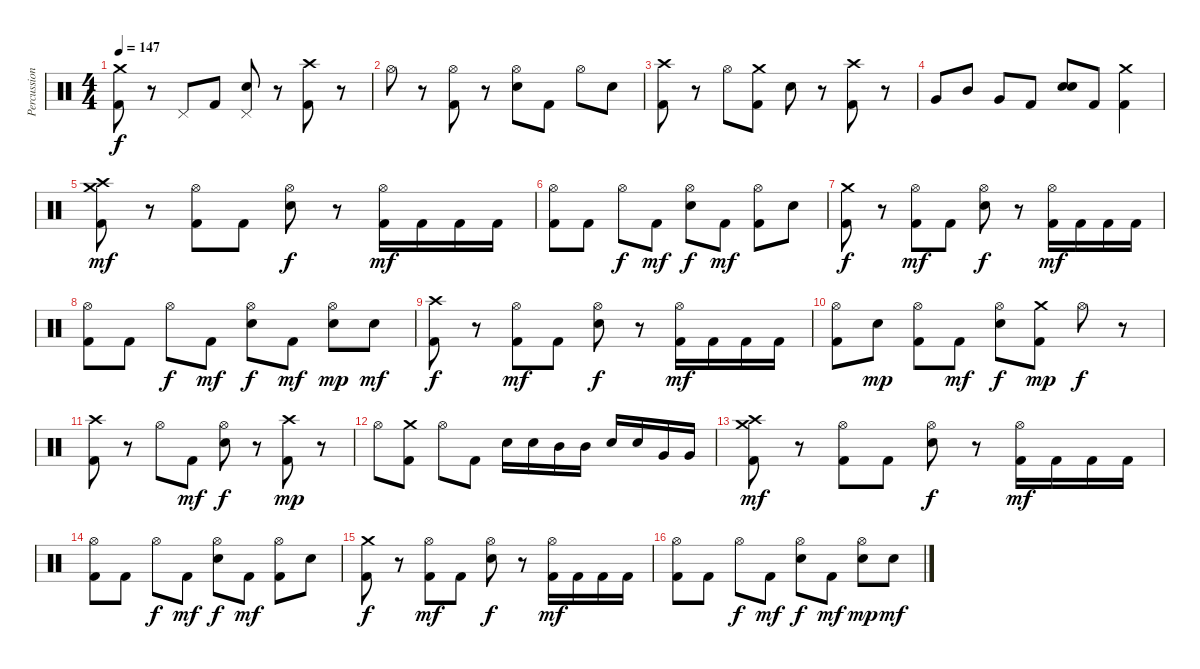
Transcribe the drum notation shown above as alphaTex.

\track ("Percussion" "Percussion") {instrument percussion}
\staff {score}
\articulation defaults
\ts (4 4)
\tempo 147
\clef neutral
\ks c
("Kick (hit) 2" "Crash medium (hit)").8{dy f} r.8 "Pedal Hi-Hat (hit)".8 "Kick (hit) 2".8 ("Electric Snare (hit)" "Pedal Hi-Hat (hit)").8 r.8 ("Kick (hit) 2" "Crash high (hit)").8 r.8 |
"Hi-Hat (open)".8 r.8 ("Kick (hit) 2" "Hi-Hat (open)").8 r.8 ("Electric Snare (hit)" "Hi-Hat (open)").8 "Kick (hit) 2".8 "Hi-Hat (open)".8 "Electric Snare (hit)".8 |
("Kick (hit) 2" "Crash high (hit)").8 r.8 "Hi-Hat (open)".8 ("Kick (hit) 2" "Crash medium (hit)").8 "Electric Snare (hit)".8 r.8 ("Kick (hit) 2" "Crash high (hit)").8 r.8 |
"Very Low Tom (hit)".8 "Mid Tom (hit)".8 "Very Low Tom (hit)".8 "Kick (hit) 2".8 ("Electric Snare (hit)" "Electric Snare (hit)").8 "Kick (hit) 2".8 ("Kick (hit) 2" "Crash medium (hit)").4 |
("Kick (hit) 2" "Crash medium (hit)" "Crash high (hit)").8{dy mf} r.8 ("Kick (hit) 2" "Hi-Hat (open)").8 "Kick (hit) 2".8 ("Electric Snare (hit)" "Hi-Hat (open)").8{dy f} r.8 ("Kick (hit) 2" "Hi-Hat (open)").16{dy mf} "Kick (hit) 2".16 "Kick (hit) 2".16 "Kick (hit) 2".16 |
("Kick (hit) 2" "Hi-Hat (open)").8 "Kick (hit) 2".8 "Hi-Hat (open)".8{dy f} "Kick (hit) 2".8{dy mf} ("Electric Snare (hit)" "Hi-Hat (open)").8{dy f} "Kick (hit) 2".8{dy mf} ("Kick (hit) 2" "Hi-Hat (open)").8 "Electric Snare (hit)".8 |
("Kick (hit) 2" "Crash medium (hit)").8{dy f} r.8 ("Kick (hit) 2" "Hi-Hat (open)").8{dy mf} "Kick (hit) 2".8 ("Electric Snare (hit)" "Hi-Hat (open)").8{dy f} r.8 ("Kick (hit) 2" "Hi-Hat (open)").16{dy mf} "Kick (hit) 2".16 "Kick (hit) 2".16 "Kick (hit) 2".16 |
("Kick (hit) 2" "Hi-Hat (open)").8 "Kick (hit) 2".8 "Hi-Hat (open)".8{dy f} "Kick (hit) 2".8{dy mf} ("Electric Snare (hit)" "Hi-Hat (open)").8{dy f} "Kick (hit) 2".8{dy mf} ("Electric Snare (hit)" "Hi-Hat (open)").8{dy mp} "Electric Snare (hit)".8{dy mf} |
("Kick (hit) 2" "Crash high (hit)").8{dy f} r.8 ("Kick (hit) 2" "Hi-Hat (open)").8{dy mf} "Kick (hit) 2".8 ("Electric Snare (hit)" "Hi-Hat (open)").8{dy f} r.8 ("Kick (hit) 2" "Hi-Hat (open)").16{dy mf} "Kick (hit) 2".16 "Kick (hit) 2".16 "Kick (hit) 2".16 |
("Kick (hit) 2" "Hi-Hat (open)").8 "Electric Snare (hit)".8{dy mp} ("Kick (hit) 2" "Hi-Hat (open)").8 "Kick (hit) 2".8{dy mf} ("Electric Snare (hit)" "Hi-Hat (open)").8{dy f} ("Kick (hit) 2" "Crash medium (hit)").8{dy mp} "Hi-Hat (open)".8{dy f} r.8 |
("Kick (hit) 2" "Crash high (hit)").8 r.8 "Hi-Hat (open)".8 "Kick (hit) 2".8{dy mf} ("Electric Snare (hit)" "Hi-Hat (open)").8{dy f} r.8 ("Kick (hit) 2" "Crash high (hit)").8{dy mp} r.8 |
"Hi-Hat (open)".8 ("Kick (hit) 2" "Crash medium (hit)").8 "Hi-Hat (open)".8 "Kick (hit) 2".8 "Electric Snare (hit)".16 "Electric Snare (hit)".16 "Mid Tom (hit)".16 "Mid Tom (hit)".16 "Electric Snare (hit)".16 "Electric Snare (hit)".16 "Very Low Tom (hit)".16 "Very Low Tom (hit)".16 |
("Kick (hit) 2" "Crash medium (hit)" "Crash high (hit)").8{dy mf} r.8 ("Kick (hit) 2" "Hi-Hat (open)").8 "Kick (hit) 2".8 ("Electric Snare (hit)" "Hi-Hat (open)").8{dy f} r.8 ("Kick (hit) 2" "Hi-Hat (open)").16{dy mf} "Kick (hit) 2".16 "Kick (hit) 2".16 "Kick (hit) 2".16 |
("Kick (hit) 2" "Hi-Hat (open)").8 "Kick (hit) 2".8 "Hi-Hat (open)".8{dy f} "Kick (hit) 2".8{dy mf} ("Electric Snare (hit)" "Hi-Hat (open)").8{dy f} "Kick (hit) 2".8{dy mf} ("Kick (hit) 2" "Hi-Hat (open)").8 "Electric Snare (hit)".8 |
("Kick (hit) 2" "Crash medium (hit)").8{dy f} r.8 ("Kick (hit) 2" "Hi-Hat (open)").8{dy mf} "Kick (hit) 2".8 ("Electric Snare (hit)" "Hi-Hat (open)").8{dy f} r.8 ("Kick (hit) 2" "Hi-Hat (open)").16{dy mf} "Kick (hit) 2".16 "Kick (hit) 2".16 "Kick (hit) 2".16 |
("Kick (hit) 2" "Hi-Hat (open)").8 "Kick (hit) 2".8 "Hi-Hat (open)".8{dy f} "Kick (hit) 2".8{dy mf} ("Electric Snare (hit)" "Hi-Hat (open)").8{dy f} "Kick (hit) 2".8{dy mf} ("Electric Snare (hit)" "Hi-Hat (open)").8{dy mp} "Electric Snare (hit)".8{dy mf}
